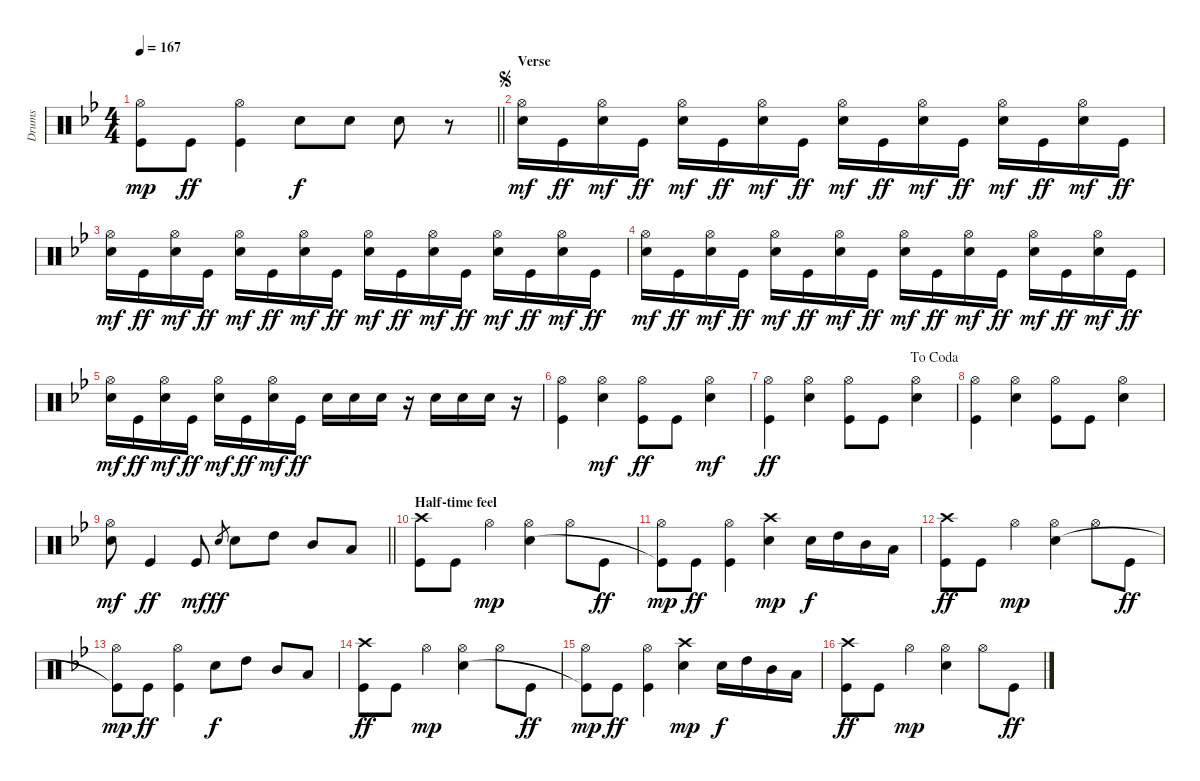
\track ("Drums" "Drums") {instrument percussion}
\staff {score}
\articulation defaults
\ts (4 4)
\tempo 167
\clef neutral
\barLineRight lightlight
\ks bb
("Hi-Hat (open)" "Kick (hit)"{t}).8{dy mp} "Kick (hit)".8{dy ff} ("Hi-Hat (open)" "Kick (hit)").4 "Electric Snare (hit)".8{dy f} "Electric Snare (hit)".8 "Electric Snare (hit)".8 r.8 |
\section ("" "Verse")
\jump segno
("Hi-Hat (open)" "Electric Snare (hit)").16{dy mf} "Kick (hit)".16{dy ff} ("Hi-Hat (open)" "Electric Snare (hit)").16{dy mf} "Kick (hit)".16{dy ff} ("Hi-Hat (open)" "Electric Snare (hit)").16{dy mf} "Kick (hit)".16{dy ff} ("Hi-Hat (open)" "Electric Snare (hit)").16{dy mf} "Kick (hit)".16{dy ff} ("Hi-Hat (open)" "Electric Snare (hit)").16{dy mf} "Kick (hit)".16{dy ff} ("Hi-Hat (open)" "Electric Snare (hit)").16{dy mf} "Kick (hit)".16{dy ff} ("Hi-Hat (open)" "Electric Snare (hit)").16{dy mf} "Kick (hit)".16{dy ff} ("Hi-Hat (open)" "Electric Snare (hit)").16{dy mf} "Kick (hit)".16{dy ff} |
("Hi-Hat (open)" "Electric Snare (hit)").16{dy mf} "Kick (hit)".16{dy ff} ("Hi-Hat (open)" "Electric Snare (hit)").16{dy mf} "Kick (hit)".16{dy ff} ("Hi-Hat (open)" "Electric Snare (hit)").16{dy mf} "Kick (hit)".16{dy ff} ("Hi-Hat (open)" "Electric Snare (hit)").16{dy mf} "Kick (hit)".16{dy ff} ("Hi-Hat (open)" "Electric Snare (hit)").16{dy mf} "Kick (hit)".16{dy ff} ("Hi-Hat (open)" "Electric Snare (hit)").16{dy mf} "Kick (hit)".16{dy ff} ("Hi-Hat (open)" "Electric Snare (hit)").16{dy mf} "Kick (hit)".16{dy ff} ("Hi-Hat (open)" "Electric Snare (hit)").16{dy mf} "Kick (hit)".16{dy ff} |
("Hi-Hat (open)" "Electric Snare (hit)").16{dy mf} "Kick (hit)".16{dy ff} ("Hi-Hat (open)" "Electric Snare (hit)").16{dy mf} "Kick (hit)".16{dy ff} ("Hi-Hat (open)" "Electric Snare (hit)").16{dy mf} "Kick (hit)".16{dy ff} ("Hi-Hat (open)" "Electric Snare (hit)").16{dy mf} "Kick (hit)".16{dy ff} ("Hi-Hat (open)" "Electric Snare (hit)").16{dy mf} "Kick (hit)".16{dy ff} ("Hi-Hat (open)" "Electric Snare (hit)").16{dy mf} "Kick (hit)".16{dy ff} ("Hi-Hat (open)" "Electric Snare (hit)").16{dy mf} "Kick (hit)".16{dy ff} ("Hi-Hat (open)" "Electric Snare (hit)").16{dy mf} "Kick (hit)".16{dy ff} |
("Hi-Hat (open)" "Electric Snare (hit)").16{dy mf} "Kick (hit)".16{dy ff} ("Hi-Hat (open)" "Electric Snare (hit)").16{dy mf} "Kick (hit)".16{dy ff} ("Hi-Hat (open)" "Electric Snare (hit)").16{dy mf} "Kick (hit)".16{dy ff} ("Hi-Hat (open)" "Electric Snare (hit)").16{dy mf} "Kick (hit)".16{dy ff} "Electric Snare (hit)".16 "Electric Snare (hit)".16 "Electric Snare (hit)".16 r.16 "Electric Snare (hit)".16 "Electric Snare (hit)".16 "Electric Snare (hit)".16 r.16 |
("Hi-Hat (open)" "Kick (hit)").4 ("Hi-Hat (open)" "Electric Snare (hit)").4{dy mf} ("Hi-Hat (open)" "Kick (hit)").8{dy ff} "Kick (hit)".8 ("Hi-Hat (open)" "Electric Snare (hit)").4{dy mf} |
\jump dacoda
("Hi-Hat (open)" "Kick (hit)").4{dy ff} ("Hi-Hat (open)" "Electric Snare (hit)").4 ("Hi-Hat (open)" "Kick (hit)").8 "Kick (hit)".8 ("Hi-Hat (open)" "Electric Snare (hit)").4 |
("Hi-Hat (open)" "Kick (hit)").4 ("Hi-Hat (open)" "Electric Snare (hit)").4 ("Hi-Hat (open)" "Kick (hit)").8 "Kick (hit)".8 ("Hi-Hat (open)" "Electric Snare (hit)").4 |
\barLineRight lightlight
("Hi-Hat (open)" "Electric Snare (hit)").8{dy mf} "Kick (hit)".4{dy ff} "Kick (hit)".8{dy mf} "Electric Snare (hit)".8{gr dy ff} "Electric Snare (hit)".8 "High Tom (hit)".8 "Mid Tom (hit)".8 "Low Tom (hit)".8 |
\section ("" "Half-time feel")
("Crash high (hit)" "Kick (hit)").8 "Kick (hit)".8 "Hi-Hat (open)".4{dy mp} ("Hi-Hat (open)" "Electric Snare (hit)").4 "Hi-Hat (open)".8 "Kick (hit)".8{dy ff} |
("Hi-Hat (open)" "Kick (hit)"{t}).8{dy mp} "Kick (hit)".8{dy ff} ("Hi-Hat (open)" "Kick (hit)").4 ("Crash high (hit)" "Electric Snare (hit)").4{dy mp} "Electric Snare (hit)".16{dy f} "High Tom (hit)".16 "Mid Tom (hit)".16 "Low Tom (hit)".16 |
("Crash high (hit)" "Kick (hit)").8{dy ff} "Kick (hit)".8 "Hi-Hat (open)".4{dy mp} ("Hi-Hat (open)" "Electric Snare (hit)").4 "Hi-Hat (open)".8 "Kick (hit)".8{dy ff} |
("Hi-Hat (open)" "Kick (hit)"{t}).8{dy mp} "Kick (hit)".8{dy ff} ("Hi-Hat (open)" "Kick (hit)").4 "Electric Snare (hit)".8{dy f} "High Tom (hit)".8 "Mid Tom (hit)".8 "Low Tom (hit)".8 |
("Crash high (hit)" "Kick (hit)").8{dy ff} "Kick (hit)".8 "Hi-Hat (open)".4{dy mp} ("Hi-Hat (open)" "Electric Snare (hit)").4 "Hi-Hat (open)".8 "Kick (hit)".8{dy ff} |
("Hi-Hat (open)" "Kick (hit)"{t}).8{dy mp} "Kick (hit)".8{dy ff} ("Hi-Hat (open)" "Kick (hit)").4 ("Crash high (hit)" "Electric Snare (hit)").4{dy mp} "Electric Snare (hit)".16{dy f} "High Tom (hit)".16 "Mid Tom (hit)".16 "Low Tom (hit)".16 |
("Crash high (hit)" "Kick (hit)").8{dy ff} "Kick (hit)".8 "Hi-Hat (open)".4{dy mp} ("Hi-Hat (open)" "Electric Snare (hit)").4 "Hi-Hat (open)".8 "Kick (hit)".8{dy ff}
